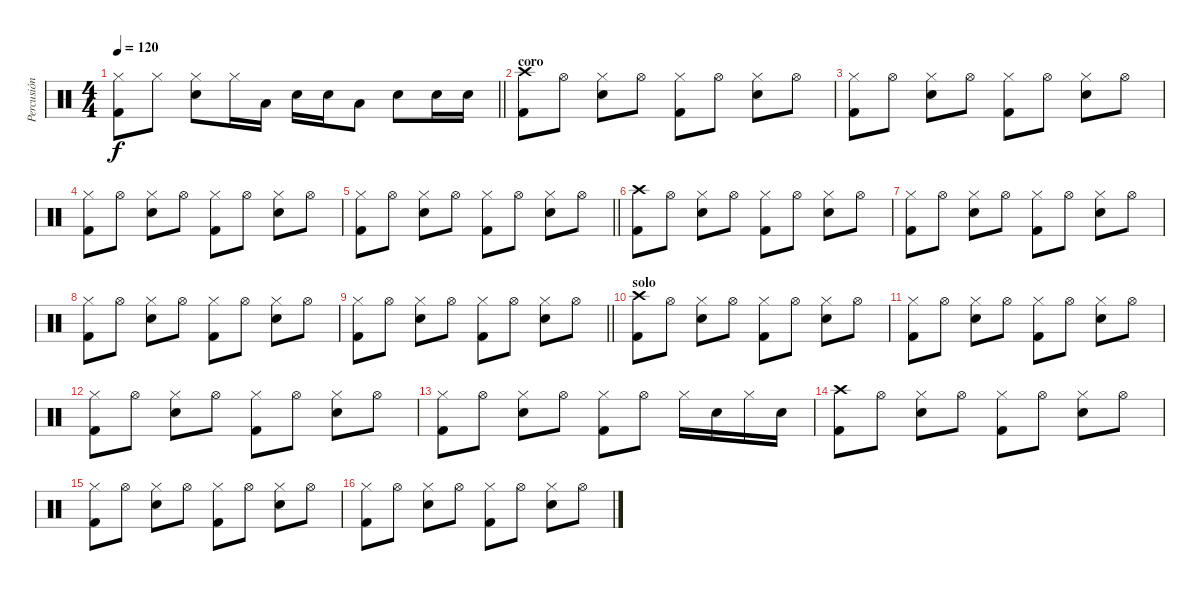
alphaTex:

\track ("Percusión" "Percusión") {instrument percussion}
\staff {score}
\articulation defaults
\ts (4 4)
\tempo 120
\clef neutral
\barLineRight lightlight
\ks c
("Hi-Hat (closed)" "Kick (hit) 2").8{dy f} "Hi-Hat (closed)".8 ("Hi-Hat (closed)" "Electric Snare (hit)").8 "Hi-Hat (closed)".16 "Low Tom (hit)".16 "Electric Snare (hit)".16 "Electric Snare (hit)".16 "Low Tom (hit)".8 "Electric Snare (hit)".8 "Electric Snare (hit)".16 "Electric Snare (hit)".16 |
\section ("" "coro")
("Crash high (hit)" "Kick (hit) 2").8 "Hi-Hat (open)".8 ("Hi-Hat (closed)" "Electric Snare (hit)").8 "Hi-Hat (open)".8 ("Hi-Hat (closed)" "Kick (hit) 2").8 "Hi-Hat (open)".8 ("Hi-Hat (closed)" "Electric Snare (hit)").8 "Hi-Hat (open)".8 |
("Hi-Hat (closed)" "Kick (hit) 2").8 "Hi-Hat (open)".8 ("Hi-Hat (closed)" "Electric Snare (hit)").8 "Hi-Hat (open)".8 ("Hi-Hat (closed)" "Kick (hit) 2").8 "Hi-Hat (open)".8 ("Hi-Hat (closed)" "Electric Snare (hit)").8 "Hi-Hat (open)".8 |
("Hi-Hat (closed)" "Kick (hit) 2").8 "Hi-Hat (open)".8 ("Hi-Hat (closed)" "Electric Snare (hit)").8 "Hi-Hat (open)".8 ("Hi-Hat (closed)" "Kick (hit) 2").8 "Hi-Hat (open)".8 ("Hi-Hat (closed)" "Electric Snare (hit)").8 "Hi-Hat (open)".8 |
\barLineRight lightlight
("Hi-Hat (closed)" "Kick (hit) 2").8 "Hi-Hat (open)".8 ("Hi-Hat (closed)" "Electric Snare (hit)").8 "Hi-Hat (open)".8 ("Hi-Hat (closed)" "Kick (hit) 2").8 "Hi-Hat (open)".8 ("Hi-Hat (closed)" "Electric Snare (hit)").8 "Hi-Hat (open)".8 |
("Crash high (hit)" "Kick (hit) 2").8 "Hi-Hat (open)".8 ("Hi-Hat (closed)" "Electric Snare (hit)").8 "Hi-Hat (open)".8 ("Hi-Hat (closed)" "Kick (hit) 2").8 "Hi-Hat (open)".8 ("Hi-Hat (closed)" "Electric Snare (hit)").8 "Hi-Hat (open)".8 |
("Hi-Hat (closed)" "Kick (hit) 2").8 "Hi-Hat (open)".8 ("Hi-Hat (closed)" "Electric Snare (hit)").8 "Hi-Hat (open)".8 ("Hi-Hat (closed)" "Kick (hit) 2").8 "Hi-Hat (open)".8 ("Hi-Hat (closed)" "Electric Snare (hit)").8 "Hi-Hat (open)".8 |
("Hi-Hat (closed)" "Kick (hit) 2").8 "Hi-Hat (open)".8 ("Hi-Hat (closed)" "Electric Snare (hit)").8 "Hi-Hat (open)".8 ("Hi-Hat (closed)" "Kick (hit) 2").8 "Hi-Hat (open)".8 ("Hi-Hat (closed)" "Electric Snare (hit)").8 "Hi-Hat (open)".8 |
\barLineRight lightlight
("Hi-Hat (closed)" "Kick (hit) 2").8 "Hi-Hat (open)".8 ("Hi-Hat (closed)" "Electric Snare (hit)").8 "Hi-Hat (open)".8 ("Hi-Hat (closed)" "Kick (hit) 2").8 "Hi-Hat (open)".8 ("Hi-Hat (closed)" "Electric Snare (hit)").8 "Hi-Hat (open)".8 |
\section ("" "solo")
("Crash high (hit)" "Kick (hit) 2").8 "Hi-Hat (open)".8 ("Hi-Hat (closed)" "Electric Snare (hit)").8 "Hi-Hat (open)".8 ("Hi-Hat (closed)" "Kick (hit) 2").8 "Hi-Hat (open)".8 ("Hi-Hat (closed)" "Electric Snare (hit)").8 "Hi-Hat (open)".8 |
("Hi-Hat (closed)" "Kick (hit) 2").8 "Hi-Hat (open)".8 ("Hi-Hat (closed)" "Electric Snare (hit)").8 "Hi-Hat (open)".8 ("Hi-Hat (closed)" "Kick (hit) 2").8 "Hi-Hat (open)".8 ("Hi-Hat (closed)" "Electric Snare (hit)").8 "Hi-Hat (open)".8 |
("Hi-Hat (closed)" "Kick (hit) 2").8 "Hi-Hat (open)".8 ("Hi-Hat (closed)" "Electric Snare (hit)").8 "Hi-Hat (open)".8 ("Hi-Hat (closed)" "Kick (hit) 2").8 "Hi-Hat (open)".8 ("Hi-Hat (closed)" "Electric Snare (hit)").8 "Hi-Hat (open)".8 |
("Hi-Hat (closed)" "Kick (hit) 2").8 "Hi-Hat (open)".8 ("Hi-Hat (closed)" "Electric Snare (hit)").8 "Hi-Hat (open)".8 ("Hi-Hat (closed)" "Kick (hit) 2").8 "Hi-Hat (open)".8 "Hi-Hat (closed)".16 "Electric Snare (hit)".16 "Hi-Hat (closed)".16 "Electric Snare (hit)".16 |
("Crash high (hit)" "Kick (hit) 2").8 "Hi-Hat (open)".8 ("Hi-Hat (closed)" "Electric Snare (hit)").8 "Hi-Hat (open)".8 ("Hi-Hat (closed)" "Kick (hit) 2").8 "Hi-Hat (open)".8 ("Hi-Hat (closed)" "Electric Snare (hit)").8 "Hi-Hat (open)".8 |
("Hi-Hat (closed)" "Kick (hit) 2").8 "Hi-Hat (open)".8 ("Hi-Hat (closed)" "Electric Snare (hit)").8 "Hi-Hat (open)".8 ("Hi-Hat (closed)" "Kick (hit) 2").8 "Hi-Hat (open)".8 ("Hi-Hat (closed)" "Electric Snare (hit)").8 "Hi-Hat (open)".8 |
("Hi-Hat (closed)" "Kick (hit) 2").8 "Hi-Hat (open)".8 ("Hi-Hat (closed)" "Electric Snare (hit)").8 "Hi-Hat (open)".8 ("Hi-Hat (closed)" "Kick (hit) 2").8 "Hi-Hat (open)".8 ("Hi-Hat (closed)" "Electric Snare (hit)").8 "Hi-Hat (open)".8
